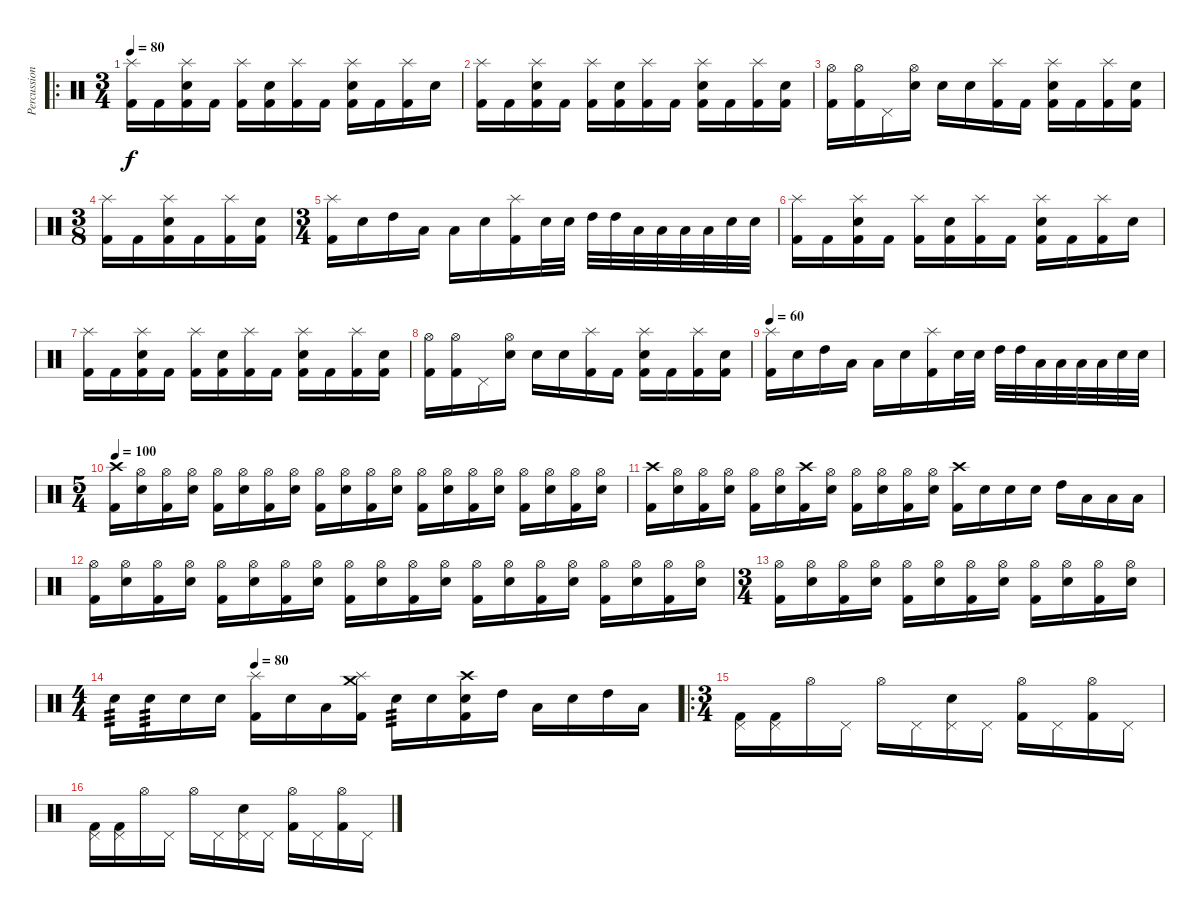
\track ("Percussion" "Percussion") {instrument percussion}
\staff {score}
\articulation defaults
\ro
\ts (3 4)
\tempo 80
\clef neutral
\ks c
("Splash (hit)" "Kick (hit) 2").16{dy f} "Kick (hit) 2".16 ("Splash (hit)" "Electric Snare (hit)" "Kick (hit) 2").16 "Kick (hit) 2".16 ("Splash (hit)" "Kick (hit) 2").16 ("Electric Snare (hit)" "Kick (hit) 2").16 ("Splash (hit)" "Kick (hit) 2").16 "Kick (hit) 2".16 ("Splash (hit)" "Electric Snare (hit)" "Kick (hit) 2").16 "Kick (hit) 2".16 ("Splash (hit)" "Kick (hit) 2").16 "Electric Snare (hit)".16 |
("Splash (hit)" "Kick (hit) 2").16 "Kick (hit) 2".16 ("Splash (hit)" "Electric Snare (hit)" "Kick (hit) 2").16 "Kick (hit) 2".16 ("Splash (hit)" "Kick (hit) 2").16 ("Electric Snare (hit)" "Kick (hit) 2").16 ("Splash (hit)" "Kick (hit) 2").16 "Kick (hit) 2".16 ("Splash (hit)" "Electric Snare (hit)" "Kick (hit) 2").16 "Kick (hit) 2".16 ("Splash (hit)" "Kick (hit) 2").16 ("Electric Snare (hit)" "Kick (hit) 2").16 |
("Hi-Hat (open)" "Kick (hit) 2").16 ("Hi-Hat (open)" "Kick (hit) 2").16 "Pedal Hi-Hat (hit)".16 ("Hi-Hat (open)" "Electric Snare (hit)").16 "Electric Snare (hit)".16 "Electric Snare (hit)".16 ("Splash (hit)" "Kick (hit) 2").16 "Kick (hit) 2".16 ("Splash (hit)" "Electric Snare (hit)" "Kick (hit) 2").16 "Kick (hit) 2".16 ("Splash (hit)" "Kick (hit) 2").16 ("Electric Snare (hit)" "Kick (hit) 2").16 |
\ts (3 8)
("Splash (hit)" "Kick (hit) 2").16 "Kick (hit) 2".16 ("Splash (hit)" "Electric Snare (hit)" "Kick (hit) 2").16 "Kick (hit) 2".16 ("Splash (hit)" "Kick (hit) 2").16 ("Electric Snare (hit)" "Kick (hit) 2").16 |
\ts (3 4)
("Splash (hit)" "Kick (hit) 2").16 "Electric Snare (hit)".16 "High Tom (hit)".16 "Low Tom (hit)".16 "Low Floor Tom (hit)".16 "Electric Snare (hit)".16 ("Splash (hit)" "Kick (hit) 2").16 "Electric Snare (hit)".32 "Electric Snare (hit)".32 "High Tom (hit)".32 "High Tom (hit)".32 "Low Tom (hit)".32 "Low Tom (hit)".32 "Low Floor Tom (hit)".32 "Low Floor Tom (hit)".32 "Electric Snare (hit)".32 "Electric Snare (hit)".32 |
("Splash (hit)" "Kick (hit) 2").16 "Kick (hit) 2".16 ("Splash (hit)" "Electric Snare (hit)" "Kick (hit) 2").16 "Kick (hit) 2".16 ("Splash (hit)" "Kick (hit) 2").16 ("Electric Snare (hit)" "Kick (hit) 2").16 ("Splash (hit)" "Kick (hit) 2").16 "Kick (hit) 2".16 ("Splash (hit)" "Electric Snare (hit)" "Kick (hit) 2").16 "Kick (hit) 2".16 ("Splash (hit)" "Kick (hit) 2").16 "Electric Snare (hit)".16 |
("Splash (hit)" "Kick (hit) 2").16 "Kick (hit) 2".16 ("Splash (hit)" "Electric Snare (hit)" "Kick (hit) 2").16 "Kick (hit) 2".16 ("Splash (hit)" "Kick (hit) 2").16 ("Electric Snare (hit)" "Kick (hit) 2").16 ("Splash (hit)" "Kick (hit) 2").16 "Kick (hit) 2".16 ("Splash (hit)" "Electric Snare (hit)" "Kick (hit) 2").16 "Kick (hit) 2".16 ("Splash (hit)" "Kick (hit) 2").16 ("Electric Snare (hit)" "Kick (hit) 2").16 |
("Hi-Hat (open)" "Kick (hit) 2").16 ("Hi-Hat (open)" "Kick (hit) 2").16 "Pedal Hi-Hat (hit)".16 ("Hi-Hat (open)" "Electric Snare (hit)").16 "Electric Snare (hit)".16 "Electric Snare (hit)".16 ("Splash (hit)" "Kick (hit) 2").16 "Kick (hit) 2".16 ("Splash (hit)" "Electric Snare (hit)" "Kick (hit) 2").16 "Kick (hit) 2".16 ("Splash (hit)" "Kick (hit) 2").16 ("Electric Snare (hit)" "Kick (hit) 2").16 |
\tempo 60
("Splash (hit)" "Kick (hit) 2").16 "Electric Snare (hit)".16 "High Tom (hit)".16 "Low Tom (hit)".16 "Low Floor Tom (hit)".16 "Electric Snare (hit)".16 ("Splash (hit)" "Kick (hit) 2").16 "Electric Snare (hit)".32 "Electric Snare (hit)".32 "High Tom (hit)".32 "High Tom (hit)".32 "Low Tom (hit)".32 "Low Tom (hit)".32 "Low Floor Tom (hit)".32 "Low Floor Tom (hit)".32 "Electric Snare (hit)".32 "Electric Snare (hit)".32 |
\ts (5 4)
\tempo 100
("Crash high (hit)" "Kick (hit) 2").16 ("Hi-Hat (open)" "Electric Snare (hit)").16 ("Hi-Hat (open)" "Kick (hit) 2").16 ("Hi-Hat (open)" "Electric Snare (hit)").16 ("Hi-Hat (open)" "Kick (hit) 2").16 ("Hi-Hat (open)" "Electric Snare (hit)").16 ("Hi-Hat (open)" "Kick (hit) 2").16 ("Hi-Hat (open)" "Electric Snare (hit)").16 ("Hi-Hat (open)" "Kick (hit) 2").16 ("Hi-Hat (open)" "Electric Snare (hit)").16 ("Hi-Hat (open)" "Kick (hit) 2").16 ("Hi-Hat (open)" "Electric Snare (hit)").16 ("Hi-Hat (open)" "Kick (hit) 2").16 ("Hi-Hat (open)" "Electric Snare (hit)").16 ("Hi-Hat (open)" "Kick (hit) 2").16 ("Hi-Hat (open)" "Electric Snare (hit)").16 ("Hi-Hat (open)" "Kick (hit) 2").16 ("Hi-Hat (open)" "Electric Snare (hit)").16 ("Hi-Hat (open)" "Kick (hit) 2").16 ("Hi-Hat (open)" "Electric Snare (hit)").16 |
("Crash high (hit)" "Kick (hit) 2").16 ("Hi-Hat (open)" "Electric Snare (hit)").16 ("Hi-Hat (open)" "Kick (hit) 2").16 ("Hi-Hat (open)" "Electric Snare (hit)").16 ("Hi-Hat (open)" "Kick (hit) 2").16 ("Hi-Hat (open)" "Electric Snare (hit)").16 ("Crash high (hit)" "Kick (hit) 2").16 ("Hi-Hat (open)" "Electric Snare (hit)").16 ("Hi-Hat (open)" "Kick (hit) 2").16 ("Hi-Hat (open)" "Electric Snare (hit)").16 ("Hi-Hat (open)" "Kick (hit) 2").16 ("Hi-Hat (open)" "Electric Snare (hit)").16 ("Crash high (hit)" "Kick (hit) 2").16 "Electric Snare (hit)".16 "Electric Snare (hit)".16 "Electric Snare (hit)".16 "High Tom (hit)".16 "Low Tom (hit)".16 "Low Floor Tom (hit)".16 "Low Floor Tom (hit)".16 |
("Hi-Hat (open)" "Kick (hit) 2").16 ("Hi-Hat (open)" "Electric Snare (hit)").16 ("Hi-Hat (open)" "Kick (hit) 2").16 ("Hi-Hat (open)" "Electric Snare (hit)").16 ("Hi-Hat (open)" "Kick (hit) 2").16 ("Hi-Hat (open)" "Electric Snare (hit)").16 ("Hi-Hat (open)" "Kick (hit) 2").16 ("Hi-Hat (open)" "Electric Snare (hit)").16 ("Hi-Hat (open)" "Kick (hit) 2").16 ("Hi-Hat (open)" "Electric Snare (hit)").16 ("Hi-Hat (open)" "Kick (hit) 2").16 ("Hi-Hat (open)" "Electric Snare (hit)").16 ("Hi-Hat (open)" "Kick (hit) 2").16 ("Hi-Hat (open)" "Electric Snare (hit)").16 ("Hi-Hat (open)" "Kick (hit) 2").16 ("Hi-Hat (open)" "Electric Snare (hit)").16 ("Hi-Hat (open)" "Kick (hit) 2").16 ("Hi-Hat (open)" "Electric Snare (hit)").16 ("Hi-Hat (open)" "Kick (hit) 2").16 ("Hi-Hat (open)" "Electric Snare (hit)").16 |
\ts (3 4)
("Hi-Hat (open)" "Kick (hit) 2").16 ("Hi-Hat (open)" "Electric Snare (hit)").16 ("Hi-Hat (open)" "Kick (hit) 2").16 ("Hi-Hat (open)" "Electric Snare (hit)").16 ("Hi-Hat (open)" "Kick (hit) 2").16 ("Hi-Hat (open)" "Electric Snare (hit)").16 ("Hi-Hat (open)" "Kick (hit) 2").16 ("Hi-Hat (open)" "Electric Snare (hit)").16 ("Hi-Hat (open)" "Kick (hit) 2").16 ("Hi-Hat (open)" "Electric Snare (hit)").16 ("Hi-Hat (open)" "Kick (hit) 2").16 ("Hi-Hat (open)" "Electric Snare (hit)").16 |
\ts (4 4)
\tempo (80 0.25)
"Electric Snare (hit)".16{tp 3} "Electric Snare (hit)".16{tp 3} "Electric Snare (hit)".16 "Electric Snare (hit)".16 ("Splash (hit)" "Kick (hit) 2").16 "Electric Snare (hit)".16 "Low Tom (hit)".16 ("Splash (hit)" "Crash medium (hit)" "Kick (hit) 2").16 "Electric Snare (hit)".16{tp 3} "Electric Snare (hit)".16 ("Crash high (hit)" "Electric Snare (hit)" "Kick (hit) 2").16 "High Tom (hit)".16 "Low Tom (hit)".16 "Electric Snare (hit)".16 "High Tom (hit)".16 "Low Tom (hit)".16 |
\ro
\ts (3 4)
("Pedal Hi-Hat (hit)" "Kick (hit) 2").16 ("Pedal Hi-Hat (hit)" "Kick (hit) 2").16 "Hi-Hat (open)".16 "Pedal Hi-Hat (hit)".16 "Hi-Hat (open)".16 "Pedal Hi-Hat (hit)".16 ("Pedal Hi-Hat (hit)" "Electric Snare (hit)").16 "Pedal Hi-Hat (hit)".16 ("Hi-Hat (open)" "Kick (hit) 2").16 "Pedal Hi-Hat (hit)".16 ("Hi-Hat (open)" "Kick (hit) 2").16 "Pedal Hi-Hat (hit)".16 |
("Pedal Hi-Hat (hit)" "Kick (hit) 2").16 ("Pedal Hi-Hat (hit)" "Kick (hit) 2").16 "Hi-Hat (open)".16 "Pedal Hi-Hat (hit)".16 "Hi-Hat (open)".16 "Pedal Hi-Hat (hit)".16 ("Pedal Hi-Hat (hit)" "Electric Snare (hit)").16 "Pedal Hi-Hat (hit)".16 ("Hi-Hat (open)" "Kick (hit) 2").16 "Pedal Hi-Hat (hit)".16 ("Hi-Hat (open)" "Kick (hit) 2").16 "Pedal Hi-Hat (hit)".16
